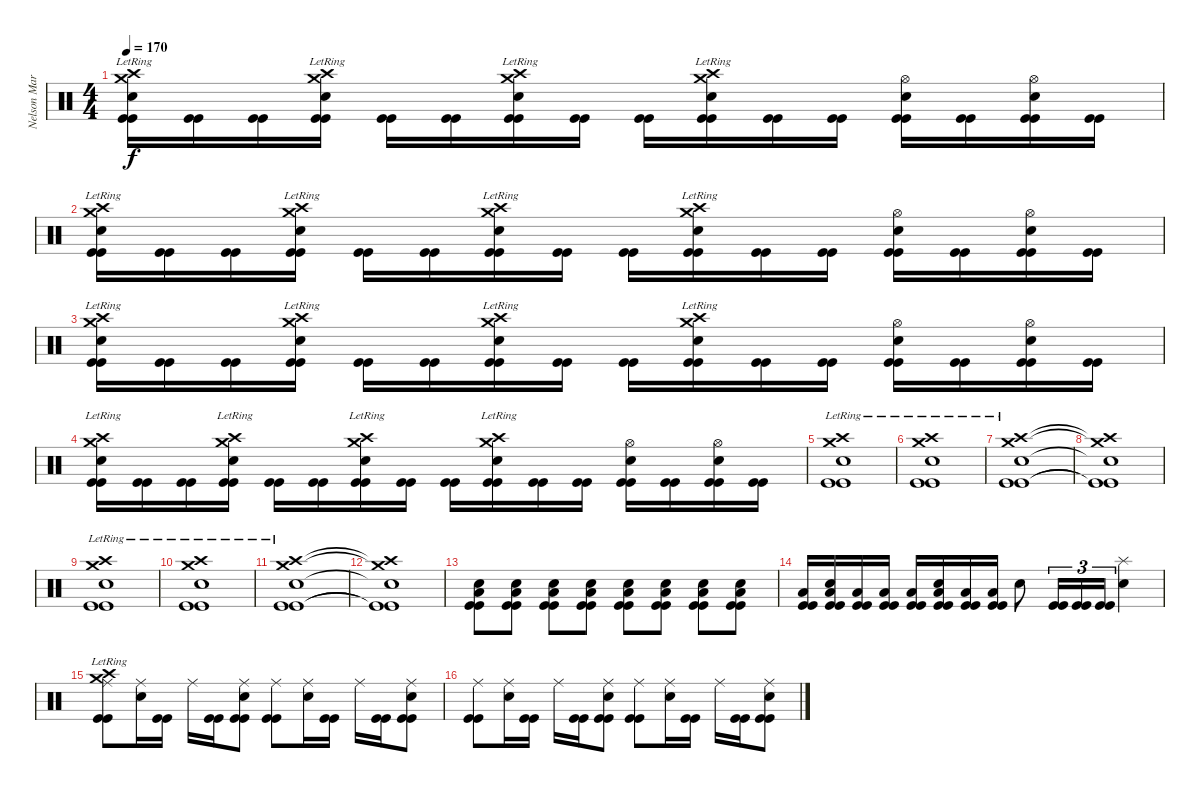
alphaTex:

\track ("Nelson Maria" "Nelson Mar") {instrument percussion}
\staff {score}
\articulation defaults
\ts (4 4)
\tempo 170
\clef neutral
\ks c
("Crash high (hit)"{lr} "Crash medium (hit)"{lr} "Snare (hit) 2" "Kick (hit)" "Kick (hit)").16{dy f} ("Kick (hit)" "Kick (hit)").16 ("Kick (hit)" "Kick (hit)").16 ("Crash high (hit)"{lr} "Crash medium (hit)"{lr} "Snare (hit) 2" "Kick (hit)" "Kick (hit)").16 ("Kick (hit)" "Kick (hit)").16 ("Kick (hit)" "Kick (hit)").16 ("Crash high (hit)"{lr} "Crash medium (hit)"{lr} "Snare (hit) 2" "Kick (hit)" "Kick (hit)").16 ("Kick (hit)" "Kick (hit)").16 ("Kick (hit)" "Kick (hit)").16 ("Crash high (hit)"{lr} "Crash medium (hit)"{lr} "Snare (hit) 2" "Kick (hit)" "Kick (hit)").16 ("Kick (hit)" "Kick (hit)").16 ("Kick (hit)" "Kick (hit)").16 ("Snare (hit) 2" "Hi-Hat (open)" "Kick (hit)" "Kick (hit)").16 ("Kick (hit)" "Kick (hit)").16 ("Snare (hit) 2" "Hi-Hat (open)" "Kick (hit)" "Kick (hit)").16 ("Kick (hit)" "Kick (hit)").16 |
("Crash high (hit)"{lr} "Crash medium (hit)"{lr} "Snare (hit) 2" "Kick (hit)" "Kick (hit)").16 ("Kick (hit)" "Kick (hit)").16 ("Kick (hit)" "Kick (hit)").16 ("Crash high (hit)"{lr} "Crash medium (hit)"{lr} "Snare (hit) 2" "Kick (hit)" "Kick (hit)").16 ("Kick (hit)" "Kick (hit)").16 ("Kick (hit)" "Kick (hit)").16 ("Crash high (hit)"{lr} "Crash medium (hit)"{lr} "Snare (hit) 2" "Kick (hit)" "Kick (hit)").16 ("Kick (hit)" "Kick (hit)").16 ("Kick (hit)" "Kick (hit)").16 ("Crash high (hit)"{lr} "Crash medium (hit)"{lr} "Snare (hit) 2" "Kick (hit)" "Kick (hit)").16 ("Kick (hit)" "Kick (hit)").16 ("Kick (hit)" "Kick (hit)").16 ("Snare (hit) 2" "Hi-Hat (open)" "Kick (hit)" "Kick (hit)").16 ("Kick (hit)" "Kick (hit)").16 ("Snare (hit) 2" "Hi-Hat (open)" "Kick (hit)" "Kick (hit)").16 ("Kick (hit)" "Kick (hit)").16 |
("Crash high (hit)"{lr} "Crash medium (hit)"{lr} "Snare (hit) 2" "Kick (hit)" "Kick (hit)").16 ("Kick (hit)" "Kick (hit)").16 ("Kick (hit)" "Kick (hit)").16 ("Crash high (hit)"{lr} "Crash medium (hit)"{lr} "Snare (hit) 2" "Kick (hit)" "Kick (hit)").16 ("Kick (hit)" "Kick (hit)").16 ("Kick (hit)" "Kick (hit)").16 ("Crash high (hit)"{lr} "Crash medium (hit)"{lr} "Snare (hit) 2" "Kick (hit)" "Kick (hit)").16 ("Kick (hit)" "Kick (hit)").16 ("Kick (hit)" "Kick (hit)").16 ("Crash high (hit)"{lr} "Crash medium (hit)"{lr} "Snare (hit) 2" "Kick (hit)" "Kick (hit)").16 ("Kick (hit)" "Kick (hit)").16 ("Kick (hit)" "Kick (hit)").16 ("Snare (hit) 2" "Hi-Hat (open)" "Kick (hit)" "Kick (hit)").16 ("Kick (hit)" "Kick (hit)").16 ("Snare (hit) 2" "Hi-Hat (open)" "Kick (hit)" "Kick (hit)").16 ("Kick (hit)" "Kick (hit)").16 |
("Crash high (hit)"{lr} "Crash medium (hit)"{lr} "Snare (hit) 2" "Kick (hit)" "Kick (hit)").16 ("Kick (hit)" "Kick (hit)").16 ("Kick (hit)" "Kick (hit)").16 ("Crash high (hit)"{lr} "Crash medium (hit)"{lr} "Snare (hit) 2" "Kick (hit)" "Kick (hit)").16 ("Kick (hit)" "Kick (hit)").16 ("Kick (hit)" "Kick (hit)").16 ("Crash high (hit)"{lr} "Crash medium (hit)"{lr} "Snare (hit) 2" "Kick (hit)" "Kick (hit)").16 ("Kick (hit)" "Kick (hit)").16 ("Kick (hit)" "Kick (hit)").16 ("Crash high (hit)"{lr} "Crash medium (hit)"{lr} "Snare (hit) 2" "Kick (hit)" "Kick (hit)").16 ("Kick (hit)" "Kick (hit)").16 ("Kick (hit)" "Kick (hit)").16 ("Snare (hit) 2" "Hi-Hat (open)" "Kick (hit)" "Kick (hit)").16 ("Kick (hit)" "Kick (hit)").16 ("Snare (hit) 2" "Hi-Hat (open)" "Kick (hit)" "Kick (hit)").16 ("Kick (hit)" "Kick (hit)").16 |
("Crash high (hit)"{lr} "Crash medium (hit)"{lr} "Snare (hit) 2" "Kick (hit)" "Kick (hit)").1 |
("Crash high (hit)"{lr} "Crash medium (hit)"{lr} "Snare (hit) 2" "Kick (hit)" "Kick (hit)").1 |
("Crash high (hit)"{lr} "Crash medium (hit)"{lr} "Snare (hit) 2" "Kick (hit)" "Kick (hit)").1 |
("Crash high (hit)"{t} "Crash medium (hit)"{t} "Snare (hit) 2"{t} "Kick (hit)"{t} "Kick (hit)"{t}).1 |
("Crash high (hit)"{lr} "Crash medium (hit)"{lr} "Snare (hit) 2" "Kick (hit)" "Kick (hit)").1 |
("Crash high (hit)"{lr} "Crash medium (hit)"{lr} "Snare (hit) 2" "Kick (hit)" "Kick (hit)").1 |
("Crash high (hit)"{lr} "Crash medium (hit)"{lr} "Snare (hit) 2" "Kick (hit)" "Kick (hit)").1 |
("Crash high (hit)"{t} "Crash medium (hit)"{t} "Snare (hit) 2"{t} "Kick (hit)"{t} "Kick (hit)"{t}).1 |
("Snare (hit) 2" "Low Tom (hit)" "Kick (hit)" "Kick (hit)").8 ("Snare (hit) 2" "Low Tom (hit)" "Kick (hit)" "Kick (hit)").8 ("Snare (hit) 2" "Low Tom (hit)" "Kick (hit)" "Kick (hit)").8 ("Snare (hit) 2" "Low Tom (hit)" "Kick (hit)" "Kick (hit)").8 ("Snare (hit) 2" "Low Tom (hit)" "Kick (hit)" "Kick (hit)").8 ("Snare (hit) 2" "Low Tom (hit)" "Kick (hit)" "Kick (hit)").8 ("Snare (hit) 2" "Low Tom (hit)" "Kick (hit)" "Kick (hit)").8 ("Snare (hit) 2" "Low Tom (hit)" "Kick (hit)" "Kick (hit)").8 |
("Low Tom (hit)" "Kick (hit)" "Kick (hit)").16 ("Snare (hit) 2" "Low Tom (hit)" "Kick (hit)" "Kick (hit)").16 ("Low Tom (hit)" "Kick (hit)" "Kick (hit)").16 ("Low Tom (hit)" "Kick (hit)" "Kick (hit)").16 ("Low Tom (hit)" "Kick (hit)" "Kick (hit)").16 ("Snare (hit) 2" "Low Tom (hit)" "Kick (hit)" "Kick (hit)").16 ("Low Tom (hit)" "Kick (hit)" "Kick (hit)").16 ("Low Tom (hit)" "Kick (hit)" "Kick (hit)").16 "Snare (hit) 2".8 ("Kick (hit)" "Kick (hit)").16{tu (3 2)} ("Kick (hit)" "Kick (hit)").16{tu (3 2)} ("Kick (hit)" "Kick (hit)").16{tu (3 2)} ("Snare (hit) 2" "Splash (hit)").4 |
("Crash high (hit)"{lr} "Crash medium (hit)"{lr} "Ride (middle)" "Kick (hit)" "Kick (hit)").8 ("Snare (hit) 2" "Ride (middle)").16 ("Kick (hit)" "Kick (hit)").16 "Ride (middle)".16 ("Kick (hit)" "Kick (hit)").16 ("Snare (hit) 2" "Ride (middle)" "Kick (hit)" "Kick (hit)").8 ("Ride (middle)" "Kick (hit)" "Kick (hit)").8 ("Snare (hit) 2" "Ride (middle)").16 ("Kick (hit)" "Kick (hit)").16 "Ride (middle)".16 ("Kick (hit)" "Kick (hit)").16 ("Snare (hit) 2" "Ride (middle)" "Kick (hit)" "Kick (hit)").8 |
("Ride (middle)" "Kick (hit)" "Kick (hit)").8 ("Snare (hit) 2" "Ride (middle)").16 ("Kick (hit)" "Kick (hit)").16 "Ride (middle)".16 ("Kick (hit)" "Kick (hit)").16 ("Snare (hit) 2" "Ride (middle)" "Kick (hit)" "Kick (hit)").8 ("Ride (middle)" "Kick (hit)" "Kick (hit)").8 ("Snare (hit) 2" "Ride (middle)").16 ("Kick (hit)" "Kick (hit)").16 "Ride (middle)".16 ("Kick (hit)" "Kick (hit)").16 ("Snare (hit) 2" "Ride (middle)" "Kick (hit)" "Kick (hit)").8
